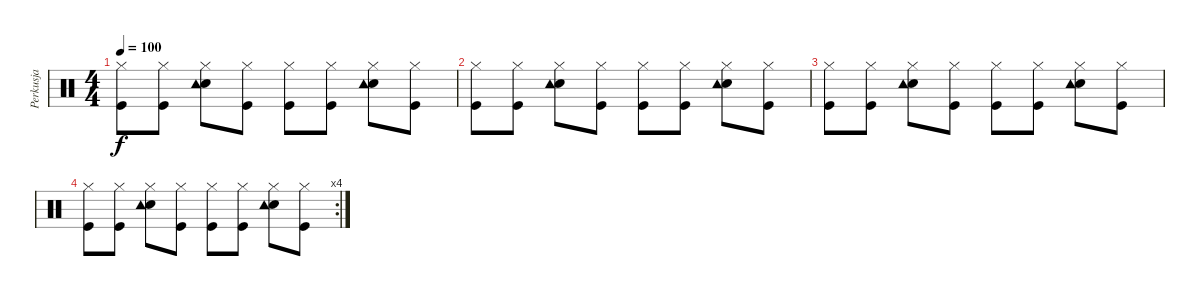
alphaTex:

\track ("Perkusja" "Perkusja") {instrument percussion}
\staff {score}
\articulation defaults
\ts (4 4)
\tempo 100
\clef neutral
\ks c
("Hi-Hat (closed)" "Kick (hit)").8{dy f} ("Hi-Hat (closed)" "Kick (hit)").8 ("Hi-Hat (closed)" "Electric Snare (hit)" "Tambourine (hit)").8 ("Hi-Hat (closed)" "Kick (hit)").8 ("Hi-Hat (closed)" "Kick (hit)").8 ("Hi-Hat (closed)" "Kick (hit)").8 ("Hi-Hat (closed)" "Electric Snare (hit)" "Tambourine (hit)").8 ("Hi-Hat (closed)" "Kick (hit)").8 |
("Hi-Hat (closed)" "Kick (hit)").8 ("Hi-Hat (closed)" "Kick (hit)").8 ("Hi-Hat (closed)" "Electric Snare (hit)" "Tambourine (hit)").8 ("Hi-Hat (closed)" "Kick (hit)").8 ("Hi-Hat (closed)" "Kick (hit)").8 ("Hi-Hat (closed)" "Kick (hit)").8 ("Hi-Hat (closed)" "Electric Snare (hit)" "Tambourine (hit)").8 ("Hi-Hat (closed)" "Kick (hit)").8 |
("Hi-Hat (closed)" "Kick (hit)").8 ("Hi-Hat (closed)" "Kick (hit)").8 ("Hi-Hat (closed)" "Electric Snare (hit)" "Tambourine (hit)").8 ("Hi-Hat (closed)" "Kick (hit)").8 ("Hi-Hat (closed)" "Kick (hit)").8 ("Hi-Hat (closed)" "Kick (hit)").8 ("Hi-Hat (closed)" "Electric Snare (hit)" "Tambourine (hit)").8 ("Hi-Hat (closed)" "Kick (hit)").8 |
\rc 4
("Hi-Hat (closed)" "Kick (hit)").8 ("Hi-Hat (closed)" "Kick (hit)").8 ("Hi-Hat (closed)" "Electric Snare (hit)" "Tambourine (hit)").8 ("Hi-Hat (closed)" "Kick (hit)").8 ("Hi-Hat (closed)" "Kick (hit)").8 ("Hi-Hat (closed)" "Kick (hit)").8 ("Hi-Hat (closed)" "Electric Snare (hit)" "Tambourine (hit)").8 ("Hi-Hat (closed)" "Kick (hit)").8
